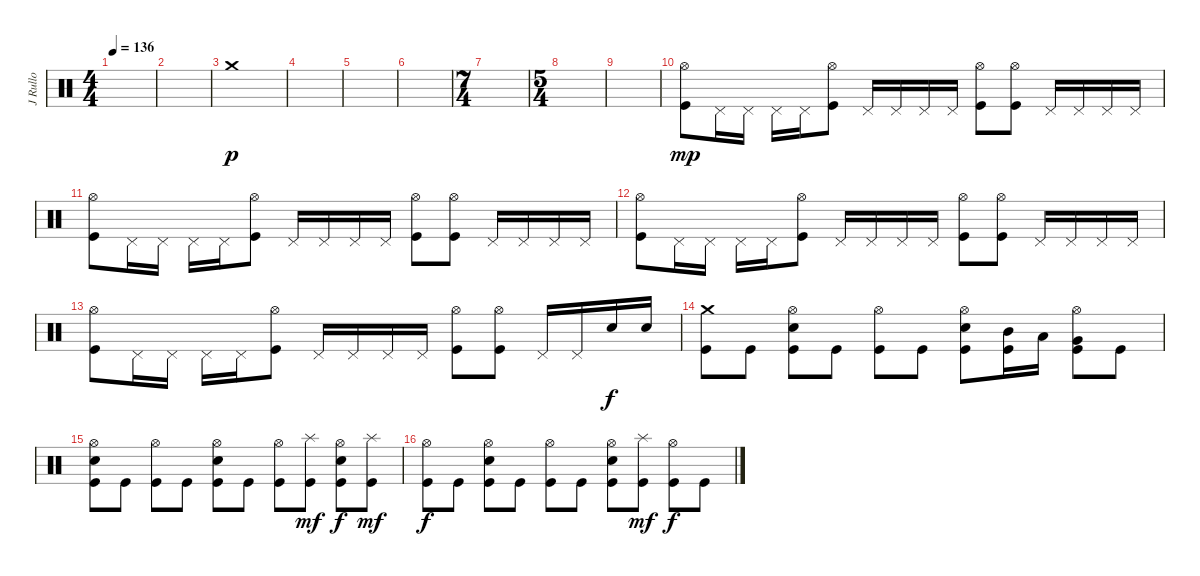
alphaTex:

\track ("J Rullo" "J Rullo") {instrument percussion}
\staff {score}
\articulation defaults
\ts (4 4)
\tempo 136
\clef neutral
\ks c
|
|
"Crash medium (hit)".1{dy p} |
|
|
|
\ts (7 4)
|
\ts (5 4)
|
|
("Hi-Hat (open)" "Kick (hit)").8{dy mp} "Pedal Hi-Hat (hit)".16 "Pedal Hi-Hat (hit)".16 "Pedal Hi-Hat (hit)".16 "Pedal Hi-Hat (hit)".16 ("Hi-Hat (open)" "Kick (hit)").8 "Pedal Hi-Hat (hit)".16 "Pedal Hi-Hat (hit)".16 "Pedal Hi-Hat (hit)".16 "Pedal Hi-Hat (hit)".16 ("Hi-Hat (open)" "Kick (hit)").8 ("Hi-Hat (open)" "Kick (hit)").8 "Pedal Hi-Hat (hit)".16 "Pedal Hi-Hat (hit)".16 "Pedal Hi-Hat (hit)".16 "Pedal Hi-Hat (hit)".16 |
("Hi-Hat (open)" "Kick (hit)").8 "Pedal Hi-Hat (hit)".16 "Pedal Hi-Hat (hit)".16 "Pedal Hi-Hat (hit)".16 "Pedal Hi-Hat (hit)".16 ("Hi-Hat (open)" "Kick (hit)").8 "Pedal Hi-Hat (hit)".16 "Pedal Hi-Hat (hit)".16 "Pedal Hi-Hat (hit)".16 "Pedal Hi-Hat (hit)".16 ("Hi-Hat (open)" "Kick (hit)").8 ("Hi-Hat (open)" "Kick (hit)").8 "Pedal Hi-Hat (hit)".16 "Pedal Hi-Hat (hit)".16 "Pedal Hi-Hat (hit)".16 "Pedal Hi-Hat (hit)".16 |
("Hi-Hat (open)" "Kick (hit)").8 "Pedal Hi-Hat (hit)".16 "Pedal Hi-Hat (hit)".16 "Pedal Hi-Hat (hit)".16 "Pedal Hi-Hat (hit)".16 ("Hi-Hat (open)" "Kick (hit)").8 "Pedal Hi-Hat (hit)".16 "Pedal Hi-Hat (hit)".16 "Pedal Hi-Hat (hit)".16 "Pedal Hi-Hat (hit)".16 ("Hi-Hat (open)" "Kick (hit)").8 ("Hi-Hat (open)" "Kick (hit)").8 "Pedal Hi-Hat (hit)".16 "Pedal Hi-Hat (hit)".16 "Pedal Hi-Hat (hit)".16 "Pedal Hi-Hat (hit)".16 |
("Hi-Hat (open)" "Kick (hit)").8 "Pedal Hi-Hat (hit)".16 "Pedal Hi-Hat (hit)".16 "Pedal Hi-Hat (hit)".16 "Pedal Hi-Hat (hit)".16 ("Hi-Hat (open)" "Kick (hit)").8 "Pedal Hi-Hat (hit)".16 "Pedal Hi-Hat (hit)".16 "Pedal Hi-Hat (hit)".16 "Pedal Hi-Hat (hit)".16 ("Hi-Hat (open)" "Kick (hit)").8 ("Hi-Hat (open)" "Kick (hit)").8 "Pedal Hi-Hat (hit)".16 "Pedal Hi-Hat (hit)".16 "Electric Snare (hit)".16{dy f} "Electric Snare (hit)".16 |
("Crash medium (hit)" "Kick (hit)").8 "Kick (hit)".8 ("Hi-Hat (open)" "Electric Snare (hit)" "Kick (hit)").8 "Kick (hit)".8 ("Hi-Hat (open)" "Kick (hit)").8 "Kick (hit)".8 ("Hi-Hat (open)" "Electric Snare (hit)" "Kick (hit)").8 ("Mid Tom (hit)" "Kick (hit)").16 "Low Tom (hit)".16 ("Hi-Hat (open)" "Very Low Tom (hit)" "Kick (hit)").8 "Kick (hit)".8 |
("Hi-Hat (open)" "Electric Snare (hit)" "Kick (hit)").8 "Kick (hit)".8 ("Hi-Hat (open)" "Kick (hit)").8 "Kick (hit)".8 ("Hi-Hat (open)" "Electric Snare (hit)" "Kick (hit)").8 "Kick (hit)".8 ("Hi-Hat (open)" "Kick (hit)").8 ("Splash (hit)" "Kick (hit)").8{dy mf} ("Hi-Hat (open)" "Electric Snare (hit)" "Kick (hit)").8{dy f} ("Splash (hit)" "Kick (hit)").8{dy mf} |
("Hi-Hat (open)" "Kick (hit)").8{dy f} "Kick (hit)".8 ("Hi-Hat (open)" "Electric Snare (hit)" "Kick (hit)").8 "Kick (hit)".8 ("Hi-Hat (open)" "Kick (hit)").8 "Kick (hit)".8 ("Hi-Hat (open)" "Electric Snare (hit)" "Kick (hit)").8 ("Splash (hit)" "Kick (hit)").8{dy mf} ("Hi-Hat (open)" "Kick (hit)").8{dy f} "Kick (hit)".8
